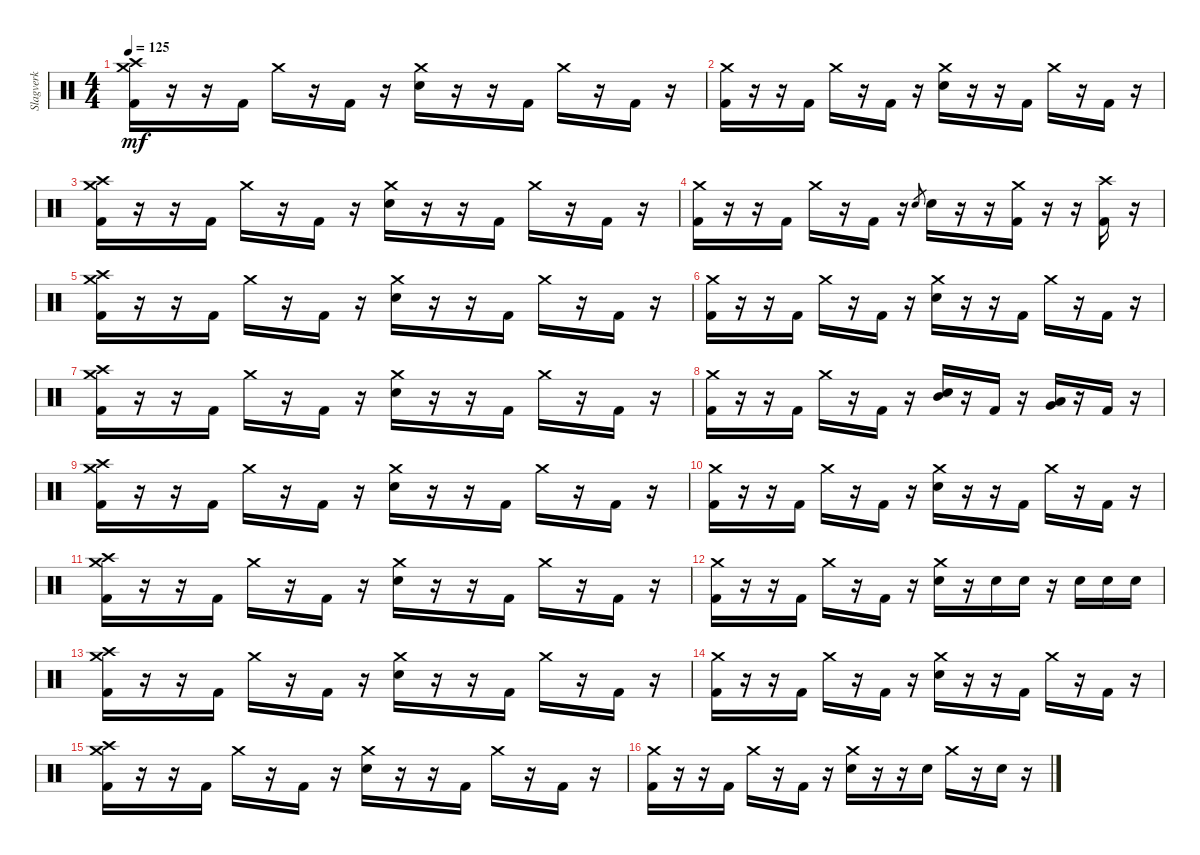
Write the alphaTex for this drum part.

\track ("Slagverk" "Slagverk") {instrument percussion}
\staff {score}
\articulation defaults
\ts (4 4)
\tempo 125
\clef neutral
\ks c
("Crash medium (hit)" "Crash high (hit)" "Kick (hit) 2").16{dy mf} r.16 r.16 "Kick (hit) 2".16 "Crash medium (hit)".16 r.16 "Kick (hit) 2".16 r.16 ("Crash medium (hit)" "Electric Snare (hit)").16 r.16 r.16 "Kick (hit) 2".16 "Crash medium (hit)".16 r.16 "Kick (hit) 2".16 r.16 |
("Crash medium (hit)" "Kick (hit) 2").16 r.16 r.16 "Kick (hit) 2".16 "Crash medium (hit)".16 r.16 "Kick (hit) 2".16 r.16 ("Crash medium (hit)" "Electric Snare (hit)").16 r.16 r.16 "Kick (hit) 2".16 "Crash medium (hit)".16 r.16 "Kick (hit) 2".16 r.16 |
("Crash medium (hit)" "Crash high (hit)" "Kick (hit) 2").16 r.16 r.16 "Kick (hit) 2".16 "Crash medium (hit)".16 r.16 "Kick (hit) 2".16 r.16 ("Crash medium (hit)" "Electric Snare (hit)").16 r.16 r.16 "Kick (hit) 2".16 "Crash medium (hit)".16 r.16 "Kick (hit) 2".16 r.16 |
("Crash medium (hit)" "Kick (hit) 2").16 r.16 r.16 "Kick (hit) 2".16 "Crash medium (hit)".16 r.16 "Kick (hit) 2".16 r.16 "Electric Snare (hit)".8{gr} "Electric Snare (hit)".16 r.16 r.16 ("Crash medium (hit)" "Kick (hit) 2").16 r.16 r.16 ("Crash high (hit)" "Kick (hit) 2").16 r.16 |
("Crash medium (hit)" "Crash high (hit)" "Kick (hit) 2").16 r.16 r.16 "Kick (hit) 2".16 "Crash medium (hit)".16 r.16 "Kick (hit) 2".16 r.16 ("Crash medium (hit)" "Electric Snare (hit)").16 r.16 r.16 "Kick (hit) 2".16 "Crash medium (hit)".16 r.16 "Kick (hit) 2".16 r.16 |
("Crash medium (hit)" "Kick (hit) 2").16 r.16 r.16 "Kick (hit) 2".16 "Crash medium (hit)".16 r.16 "Kick (hit) 2".16 r.16 ("Crash medium (hit)" "Electric Snare (hit)").16 r.16 r.16 "Kick (hit) 2".16 "Crash medium (hit)".16 r.16 "Kick (hit) 2".16 r.16 |
("Crash medium (hit)" "Crash high (hit)" "Kick (hit) 2").16 r.16 r.16 "Kick (hit) 2".16 "Crash medium (hit)".16 r.16 "Kick (hit) 2".16 r.16 ("Crash medium (hit)" "Electric Snare (hit)").16 r.16 r.16 "Kick (hit) 2".16 "Crash medium (hit)".16 r.16 "Kick (hit) 2".16 r.16 |
("Crash medium (hit)" "Kick (hit) 2").16 r.16 r.16 "Kick (hit) 2".16 "Crash medium (hit)".16 r.16 "Kick (hit) 2".16 r.16 ("Mid Tom (hit)" "Electric Snare (hit)").16 r.16 "Kick (hit) 2".16 r.16 ("Low Tom (hit)" "Very Low Tom (hit)").16 r.16 "Kick (hit) 2".16 r.16 |
("Crash medium (hit)" "Crash high (hit)" "Kick (hit) 2").16 r.16 r.16 "Kick (hit) 2".16 "Crash medium (hit)".16 r.16 "Kick (hit) 2".16 r.16 ("Crash medium (hit)" "Electric Snare (hit)").16 r.16 r.16 "Kick (hit) 2".16 "Crash medium (hit)".16 r.16 "Kick (hit) 2".16 r.16 |
("Crash medium (hit)" "Kick (hit) 2").16 r.16 r.16 "Kick (hit) 2".16 "Crash medium (hit)".16 r.16 "Kick (hit) 2".16 r.16 ("Crash medium (hit)" "Electric Snare (hit)").16 r.16 r.16 "Kick (hit) 2".16 "Crash medium (hit)".16 r.16 "Kick (hit) 2".16 r.16 |
("Crash medium (hit)" "Crash high (hit)" "Kick (hit) 2").16 r.16 r.16 "Kick (hit) 2".16 "Crash medium (hit)".16 r.16 "Kick (hit) 2".16 r.16 ("Crash medium (hit)" "Electric Snare (hit)").16 r.16 r.16 "Kick (hit) 2".16 "Crash medium (hit)".16 r.16 "Kick (hit) 2".16 r.16 |
("Crash medium (hit)" "Kick (hit) 2").16 r.16 r.16 "Kick (hit) 2".16 "Crash medium (hit)".16 r.16 "Kick (hit) 2".16 r.16 ("Crash medium (hit)" "Electric Snare (hit)").16 r.16 "Electric Snare (hit)".16 "Electric Snare (hit)".16 r.16 "Electric Snare (hit)".16 "Electric Snare (hit)".16 "Electric Snare (hit)".16 |
("Crash medium (hit)" "Crash high (hit)" "Kick (hit) 2").16 r.16 r.16 "Kick (hit) 2".16 "Crash medium (hit)".16 r.16 "Kick (hit) 2".16 r.16 ("Crash medium (hit)" "Electric Snare (hit)").16 r.16 r.16 "Kick (hit) 2".16 "Crash medium (hit)".16 r.16 "Kick (hit) 2".16 r.16 |
("Crash medium (hit)" "Kick (hit) 2").16 r.16 r.16 "Kick (hit) 2".16 "Crash medium (hit)".16 r.16 "Kick (hit) 2".16 r.16 ("Crash medium (hit)" "Electric Snare (hit)").16 r.16 r.16 "Kick (hit) 2".16 "Crash medium (hit)".16 r.16 "Kick (hit) 2".16 r.16 |
("Crash medium (hit)" "Crash high (hit)" "Kick (hit) 2").16 r.16 r.16 "Kick (hit) 2".16 "Crash medium (hit)".16 r.16 "Kick (hit) 2".16 r.16 ("Crash medium (hit)" "Electric Snare (hit)").16 r.16 r.16 "Kick (hit) 2".16 "Crash medium (hit)".16 r.16 "Kick (hit) 2".16 r.16 |
("Crash medium (hit)" "Kick (hit) 2").16 r.16 r.16 "Kick (hit) 2".16 "Crash medium (hit)".16 r.16 "Kick (hit) 2".16 r.16 ("Crash medium (hit)" "Electric Snare (hit)").16 r.16 r.16 "Electric Snare (hit)".16 "Crash medium (hit)".16 r.16 "Electric Snare (hit)".16 r.16
